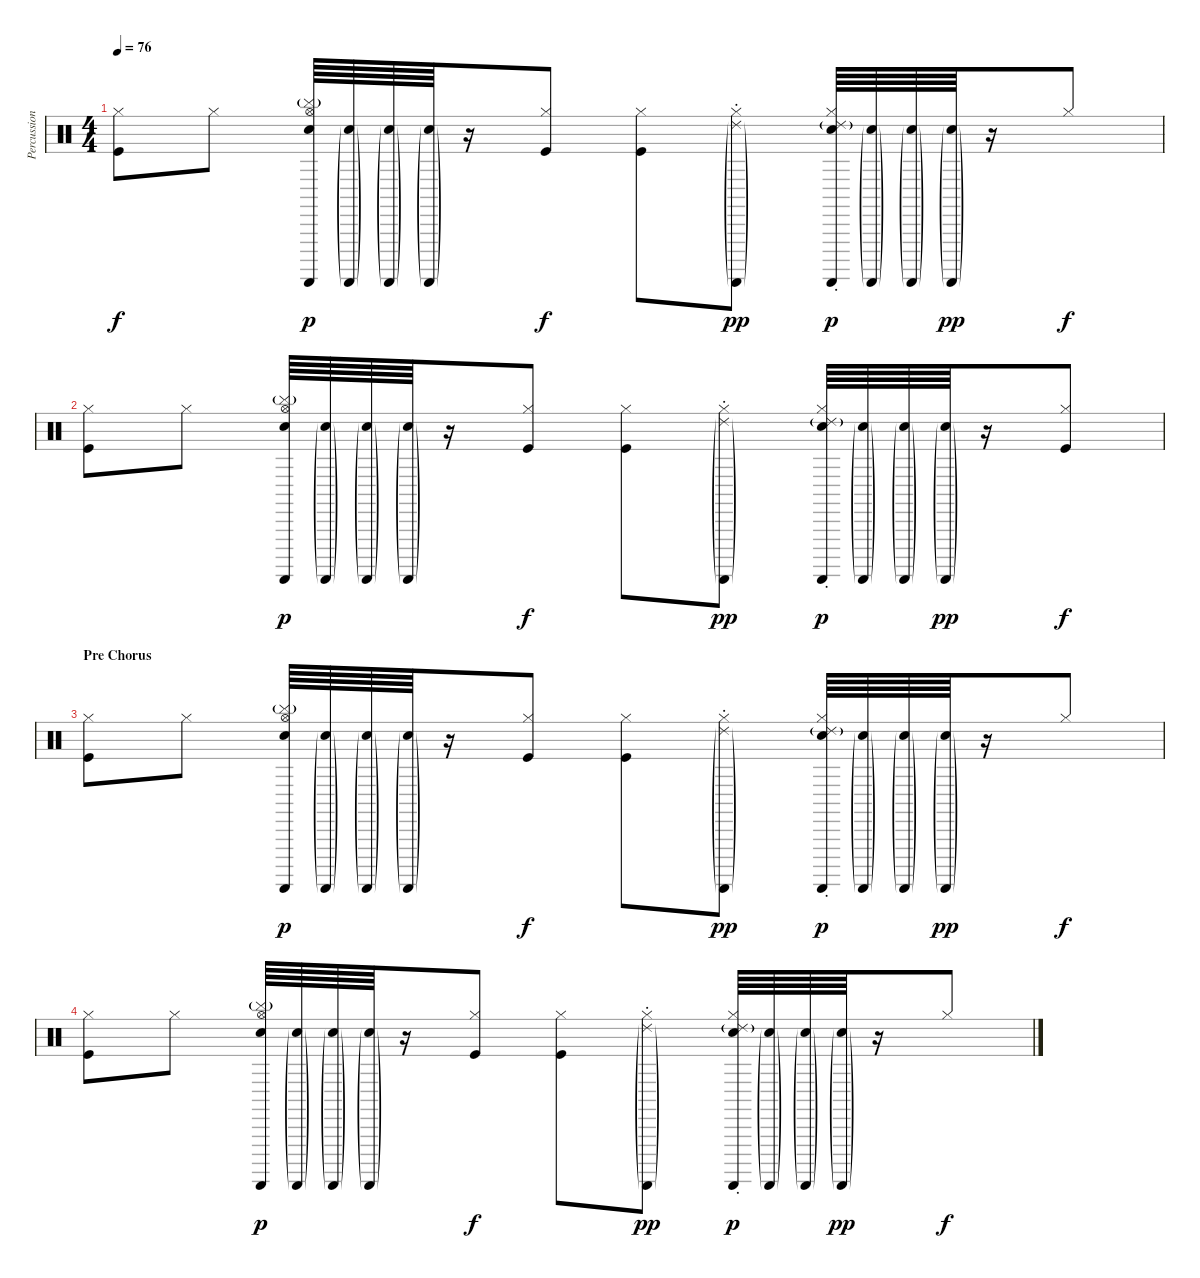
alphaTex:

\track ("Percussion" "Percussion") {instrument percussion}
\staff {score}
\articulation defaults
\ts (4 4)
\tempo 76
\clef neutral
\ks c
("Hi-Hat (closed)" "Kick (hit)").8{dy f} "Hi-Hat (closed)".8 ("Hi-Hat (open)" "Cymbal (hit)"{g} "Snare (hit) 2" "Guiro (scrap-return)").64{dy p} ("Snare (hit) 2"{g} "Guiro (scrap-return)"{g}).64 ("Snare (hit) 2"{g} "Guiro (scrap-return)"{g}).64 ("Snare (hit) 2"{g} "Guiro (scrap-return)"{g}).64 r.16 ("Hi-Hat (closed)" "Kick (hit)").8{dy f} ("Hi-Hat (closed)" "Kick (hit)").8 ("Hi-Hat (closed)" "Ride (choke) 2"{g} "Guiro (scrap-return)"{g}).8{dy pp} ("Hi-Hat (closed)" "Ride (choke) 2"{g} "Snare (hit) 2" "Guiro (scrap-return)").64{dy p} ("Snare (hit) 2"{g} "Guiro (scrap-return)"{g}).64 ("Snare (hit) 2"{g} "Guiro (scrap-return)"{g}).64 ("Snare (hit) 2"{g} "Guiro (scrap-return)"{g}).64{dy pp} r.16 "Hi-Hat (closed)".8{dy f} |
("Hi-Hat (closed)" "Kick (hit)").8 "Hi-Hat (closed)".8 ("Hi-Hat (open)" "Cymbal (hit)"{g} "Snare (hit) 2" "Guiro (scrap-return)").64{dy p} ("Snare (hit) 2"{g} "Guiro (scrap-return)"{g}).64 ("Snare (hit) 2"{g} "Guiro (scrap-return)"{g}).64 ("Snare (hit) 2"{g} "Guiro (scrap-return)"{g}).64 r.16 ("Hi-Hat (closed)" "Kick (hit)").8{dy f} ("Hi-Hat (closed)" "Kick (hit)").8 ("Hi-Hat (closed)" "Ride (choke) 2"{g} "Guiro (scrap-return)"{g}).8{dy pp} ("Hi-Hat (closed)" "Ride (choke) 2"{g} "Snare (hit) 2" "Guiro (scrap-return)").64{dy p} ("Snare (hit) 2"{g} "Guiro (scrap-return)"{g}).64 ("Snare (hit) 2"{g} "Guiro (scrap-return)"{g}).64 ("Snare (hit) 2"{g} "Guiro (scrap-return)"{g}).64{dy pp} r.16 ("Hi-Hat (closed)" "Kick (hit)").8{dy f} |
\section ("" "Pre Chorus")
("Hi-Hat (closed)" "Kick (hit)").8 "Hi-Hat (closed)".8 ("Hi-Hat (open)" "Cymbal (hit)"{g} "Snare (hit) 2" "Guiro (scrap-return)").64{dy p} ("Snare (hit) 2"{g} "Guiro (scrap-return)"{g}).64 ("Snare (hit) 2"{g} "Guiro (scrap-return)"{g}).64 ("Snare (hit) 2"{g} "Guiro (scrap-return)"{g}).64 r.16 ("Hi-Hat (closed)" "Kick (hit)").8{dy f} ("Hi-Hat (closed)" "Kick (hit)").8 ("Hi-Hat (closed)" "Ride (choke) 2"{g} "Guiro (scrap-return)"{g}).8{dy pp} ("Hi-Hat (closed)" "Ride (choke) 2"{g} "Snare (hit) 2" "Guiro (scrap-return)").64{dy p} ("Snare (hit) 2"{g} "Guiro (scrap-return)"{g}).64 ("Snare (hit) 2"{g} "Guiro (scrap-return)"{g}).64 ("Snare (hit) 2"{g} "Guiro (scrap-return)"{g}).64{dy pp} r.16 "Hi-Hat (closed)".8{dy f} |
("Hi-Hat (closed)" "Kick (hit)").8 "Hi-Hat (closed)".8 ("Hi-Hat (open)" "Cymbal (hit)"{g} "Snare (hit) 2" "Guiro (scrap-return)").64{dy p} ("Snare (hit) 2"{g} "Guiro (scrap-return)"{g}).64 ("Snare (hit) 2"{g} "Guiro (scrap-return)"{g}).64 ("Snare (hit) 2"{g} "Guiro (scrap-return)"{g}).64 r.16 ("Hi-Hat (closed)" "Kick (hit)").8{dy f} ("Hi-Hat (closed)" "Kick (hit)").8 ("Hi-Hat (closed)" "Ride (choke) 2"{g} "Guiro (scrap-return)"{g}).8{dy pp} ("Hi-Hat (closed)" "Ride (choke) 2"{g} "Snare (hit) 2" "Guiro (scrap-return)").64{dy p} ("Snare (hit) 2"{g} "Guiro (scrap-return)"{g}).64 ("Snare (hit) 2"{g} "Guiro (scrap-return)"{g}).64 ("Snare (hit) 2"{g} "Guiro (scrap-return)"{g}).64{dy pp} r.16 "Hi-Hat (closed)".8{dy f}
